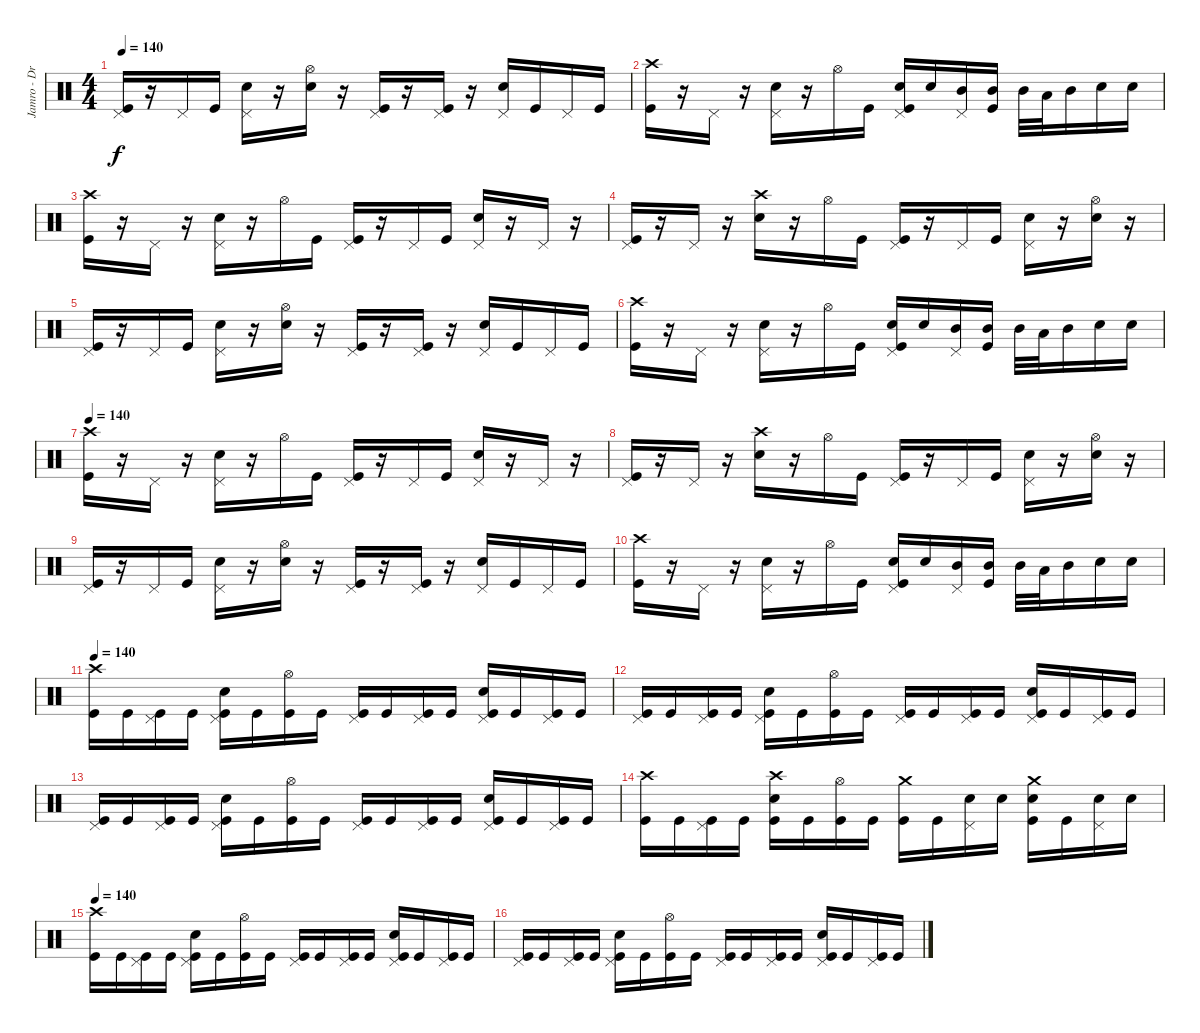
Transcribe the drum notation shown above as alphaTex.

\track ("Jamro - Drums" "Jamro - Dr") {instrument percussion}
\staff {score}
\articulation defaults
\ts (4 4)
\tempo 140
\clef neutral
\ks c
("Kick (hit)" "Pedal Hi-Hat (hit)").16{dy f} r.16 "Pedal Hi-Hat (hit)".16 "Kick (hit)".16 ("Electric Snare (hit)" "Pedal Hi-Hat (hit)").16 r.16 ("Electric Snare (hit)" "Hi-Hat (open)").16 r.16 ("Kick (hit)" "Pedal Hi-Hat (hit)").16 r.16 ("Kick (hit)" "Pedal Hi-Hat (hit)").16 r.16 ("Electric Snare (hit)" "Pedal Hi-Hat (hit)").16 "Kick (hit)".16 "Pedal Hi-Hat (hit)".16 "Kick (hit)".16 |
("Kick (hit)" "Crash high (hit)").16 r.16 "Pedal Hi-Hat (hit)".16 r.16 ("Electric Snare (hit)" "Pedal Hi-Hat (hit)").16 r.16 "Hi-Hat (open)".16 "Kick (hit)".16 ("Kick (hit)" "Pedal Hi-Hat (hit)" "Electric Snare (hit)").16 "Electric Snare (hit)".16 ("Pedal Hi-Hat (hit)" "Mid Tom (hit)").16 ("Kick (hit)" "Mid Tom (hit)").16 "Mid Tom (hit)".32 "Low Tom (hit)".32 "Mid Tom (hit)".16 "Electric Snare (hit)".16 "Electric Snare (hit)".16 |
("Kick (hit)" "Crash high (hit)").16 r.16 "Pedal Hi-Hat (hit)".16 r.16 ("Electric Snare (hit)" "Pedal Hi-Hat (hit)").16 r.16 "Hi-Hat (open)".16 "Kick (hit)".16 ("Kick (hit)" "Pedal Hi-Hat (hit)").16 r.16 "Pedal Hi-Hat (hit)".16 "Kick (hit)".16 ("Electric Snare (hit)" "Pedal Hi-Hat (hit)").16 r.16 "Pedal Hi-Hat (hit)".16 r.16 |
("Kick (hit)" "Pedal Hi-Hat (hit)").16 r.16 "Pedal Hi-Hat (hit)".16 r.16 ("Electric Snare (hit)" "Crash high (hit)").16 r.16 "Hi-Hat (open)".16 "Kick (hit)".16 ("Kick (hit)" "Pedal Hi-Hat (hit)").16 r.16 "Pedal Hi-Hat (hit)".16 "Kick (hit)".16 ("Electric Snare (hit)" "Pedal Hi-Hat (hit)").16 r.16 ("Electric Snare (hit)" "Hi-Hat (open)").16 r.16 |
("Kick (hit)" "Pedal Hi-Hat (hit)").16 r.16 "Pedal Hi-Hat (hit)".16 "Kick (hit)".16 ("Electric Snare (hit)" "Pedal Hi-Hat (hit)").16 r.16 ("Electric Snare (hit)" "Hi-Hat (open)").16 r.16 ("Kick (hit)" "Pedal Hi-Hat (hit)").16 r.16 ("Kick (hit)" "Pedal Hi-Hat (hit)").16 r.16 ("Electric Snare (hit)" "Pedal Hi-Hat (hit)").16 "Kick (hit)".16 "Pedal Hi-Hat (hit)".16 "Kick (hit)".16 |
("Kick (hit)" "Crash high (hit)").16 r.16 "Pedal Hi-Hat (hit)".16 r.16 ("Electric Snare (hit)" "Pedal Hi-Hat (hit)").16 r.16 "Hi-Hat (open)".16 "Kick (hit)".16 ("Kick (hit)" "Pedal Hi-Hat (hit)" "Electric Snare (hit)").16 "Electric Snare (hit)".16 ("Pedal Hi-Hat (hit)" "Mid Tom (hit)").16 ("Kick (hit)" "Mid Tom (hit)").16 "Mid Tom (hit)".32 "Low Tom (hit)".32 "Mid Tom (hit)".16 "Electric Snare (hit)".16 "Electric Snare (hit)".16 |
\tempo 140
("Kick (hit)" "Crash high (hit)").16 r.16 "Pedal Hi-Hat (hit)".16 r.16 ("Electric Snare (hit)" "Pedal Hi-Hat (hit)").16 r.16 "Hi-Hat (open)".16 "Kick (hit)".16 ("Kick (hit)" "Pedal Hi-Hat (hit)").16 r.16 "Pedal Hi-Hat (hit)".16 "Kick (hit)".16 ("Electric Snare (hit)" "Pedal Hi-Hat (hit)").16 r.16 "Pedal Hi-Hat (hit)".16 r.16 |
("Kick (hit)" "Pedal Hi-Hat (hit)").16 r.16 "Pedal Hi-Hat (hit)".16 r.16 ("Electric Snare (hit)" "Crash high (hit)").16 r.16 "Hi-Hat (open)".16 "Kick (hit)".16 ("Kick (hit)" "Pedal Hi-Hat (hit)").16 r.16 "Pedal Hi-Hat (hit)".16 "Kick (hit)".16 ("Electric Snare (hit)" "Pedal Hi-Hat (hit)").16 r.16 ("Electric Snare (hit)" "Hi-Hat (open)").16 r.16 |
("Kick (hit)" "Pedal Hi-Hat (hit)").16 r.16 "Pedal Hi-Hat (hit)".16 "Kick (hit)".16 ("Electric Snare (hit)" "Pedal Hi-Hat (hit)").16 r.16 ("Electric Snare (hit)" "Hi-Hat (open)").16 r.16 ("Kick (hit)" "Pedal Hi-Hat (hit)").16 r.16 ("Kick (hit)" "Pedal Hi-Hat (hit)").16 r.16 ("Electric Snare (hit)" "Pedal Hi-Hat (hit)").16 "Kick (hit)".16 "Pedal Hi-Hat (hit)".16 "Kick (hit)".16 |
("Kick (hit)" "Crash high (hit)").16 r.16 "Pedal Hi-Hat (hit)".16 r.16 ("Electric Snare (hit)" "Pedal Hi-Hat (hit)").16 r.16 "Hi-Hat (open)".16 "Kick (hit)".16 ("Kick (hit)" "Pedal Hi-Hat (hit)" "Electric Snare (hit)").16 "Electric Snare (hit)".16 ("Pedal Hi-Hat (hit)" "Mid Tom (hit)").16 ("Kick (hit)" "Mid Tom (hit)").16 "Mid Tom (hit)".32 "Low Tom (hit)".32 "Mid Tom (hit)".16 "Electric Snare (hit)".16 "Electric Snare (hit)".16 |
\tempo 140
("Kick (hit)" "Crash high (hit)").16 "Kick (hit)".16 ("Kick (hit)" "Pedal Hi-Hat (hit)").16 "Kick (hit)".16 ("Kick (hit)" "Pedal Hi-Hat (hit)" "Electric Snare (hit)").16 "Kick (hit)".16 ("Kick (hit)" "Hi-Hat (open)").16 "Kick (hit)".16 ("Kick (hit)" "Pedal Hi-Hat (hit)").16 "Kick (hit)".16 ("Kick (hit)" "Pedal Hi-Hat (hit)").16 "Kick (hit)".16 ("Kick (hit)" "Pedal Hi-Hat (hit)" "Electric Snare (hit)").16 "Kick (hit)".16 ("Kick (hit)" "Pedal Hi-Hat (hit)").16 "Kick (hit)".16 |
("Kick (hit)" "Pedal Hi-Hat (hit)").16 "Kick (hit)".16 ("Kick (hit)" "Pedal Hi-Hat (hit)").16 "Kick (hit)".16 ("Kick (hit)" "Pedal Hi-Hat (hit)" "Electric Snare (hit)").16 "Kick (hit)".16 ("Kick (hit)" "Hi-Hat (open)").16 "Kick (hit)".16 ("Kick (hit)" "Pedal Hi-Hat (hit)").16 "Kick (hit)".16 ("Kick (hit)" "Pedal Hi-Hat (hit)").16 "Kick (hit)".16 ("Kick (hit)" "Pedal Hi-Hat (hit)" "Electric Snare (hit)").16 "Kick (hit)".16 ("Kick (hit)" "Pedal Hi-Hat (hit)").16 "Kick (hit)".16 |
("Kick (hit)" "Pedal Hi-Hat (hit)").16 "Kick (hit)".16 ("Kick (hit)" "Pedal Hi-Hat (hit)").16 "Kick (hit)".16 ("Kick (hit)" "Pedal Hi-Hat (hit)" "Electric Snare (hit)").16 "Kick (hit)".16 ("Kick (hit)" "Hi-Hat (open)").16 "Kick (hit)".16 ("Kick (hit)" "Pedal Hi-Hat (hit)").16 "Kick (hit)".16 ("Kick (hit)" "Pedal Hi-Hat (hit)").16 "Kick (hit)".16 ("Kick (hit)" "Pedal Hi-Hat (hit)" "Electric Snare (hit)").16 "Kick (hit)".16 ("Kick (hit)" "Pedal Hi-Hat (hit)").16 "Kick (hit)".16 |
("Kick (hit)" "Crash high (hit)").16 "Kick (hit)".16 ("Kick (hit)" "Pedal Hi-Hat (hit)").16 "Kick (hit)".16 ("Kick (hit)" "Crash high (hit)" "Electric Snare (hit)").16 "Kick (hit)".16 ("Kick (hit)" "Hi-Hat (open)").16 "Kick (hit)".16 ("Kick (hit)" "Crash medium (hit)").16 "Kick (hit)".16 ("Pedal Hi-Hat (hit)" "Electric Snare (hit)").16 "Electric Snare (hit)".16 ("Kick (hit)" "Crash medium (hit)" "Electric Snare (hit)").16 "Kick (hit)".16 ("Pedal Hi-Hat (hit)" "Electric Snare (hit)").16 "Electric Snare (hit)".16 |
\tempo 140
("Kick (hit)" "Crash high (hit)").16 "Kick (hit)".16 ("Kick (hit)" "Pedal Hi-Hat (hit)").16 "Kick (hit)".16 ("Kick (hit)" "Pedal Hi-Hat (hit)" "Electric Snare (hit)").16 "Kick (hit)".16 ("Kick (hit)" "Hi-Hat (open)").16 "Kick (hit)".16 ("Kick (hit)" "Pedal Hi-Hat (hit)").16 "Kick (hit)".16 ("Kick (hit)" "Pedal Hi-Hat (hit)").16 "Kick (hit)".16 ("Kick (hit)" "Pedal Hi-Hat (hit)" "Electric Snare (hit)").16 "Kick (hit)".16 ("Kick (hit)" "Pedal Hi-Hat (hit)").16 "Kick (hit)".16 |
("Kick (hit)" "Pedal Hi-Hat (hit)").16 "Kick (hit)".16 ("Kick (hit)" "Pedal Hi-Hat (hit)").16 "Kick (hit)".16 ("Kick (hit)" "Pedal Hi-Hat (hit)" "Electric Snare (hit)").16 "Kick (hit)".16 ("Kick (hit)" "Hi-Hat (open)").16 "Kick (hit)".16 ("Kick (hit)" "Pedal Hi-Hat (hit)").16 "Kick (hit)".16 ("Kick (hit)" "Pedal Hi-Hat (hit)").16 "Kick (hit)".16 ("Kick (hit)" "Pedal Hi-Hat (hit)" "Electric Snare (hit)").16 "Kick (hit)".16 ("Kick (hit)" "Pedal Hi-Hat (hit)").16 "Kick (hit)".16
